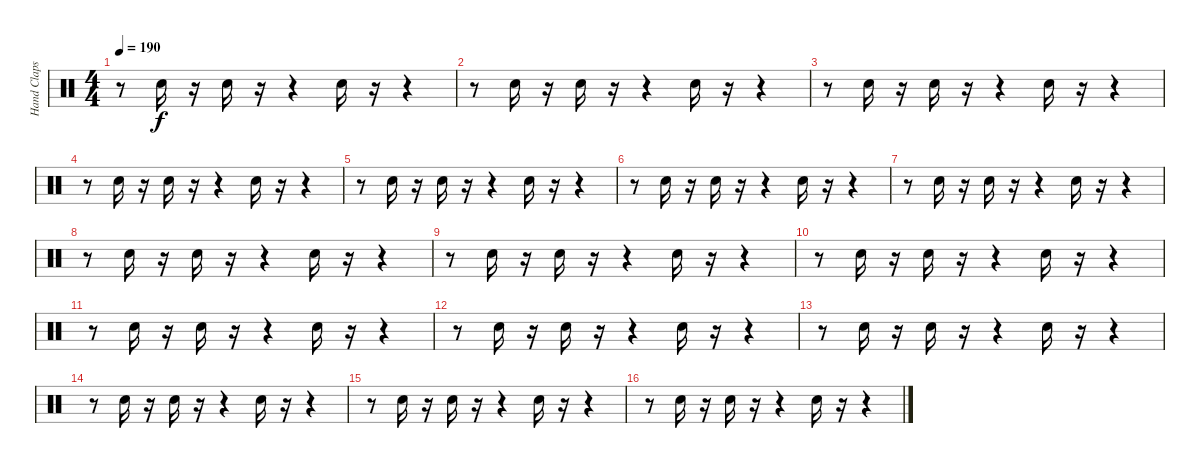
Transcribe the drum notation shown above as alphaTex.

\track ("Hand Claps" "Hand Claps") {instrument percussion}
\staff {score}
\articulation defaults
\ts (4 4)
\tempo 190
\clef neutral
\ks c
r.8{dy f} "Hand Clap (hit)".16 r.16 "Hand Clap (hit)".16 r.16 r.4 "Hand Clap (hit)".16 r.16 r.4 |
r.8 "Hand Clap (hit)".16 r.16 "Hand Clap (hit)".16 r.16 r.4 "Hand Clap (hit)".16 r.16 r.4 |
r.8 "Hand Clap (hit)".16 r.16 "Hand Clap (hit)".16 r.16 r.4 "Hand Clap (hit)".16 r.16 r.4 |
r.8 "Hand Clap (hit)".16 r.16 "Hand Clap (hit)".16 r.16 r.4 "Hand Clap (hit)".16 r.16 r.4 |
r.8 "Hand Clap (hit)".16 r.16 "Hand Clap (hit)".16 r.16 r.4 "Hand Clap (hit)".16 r.16 r.4 |
r.8 "Hand Clap (hit)".16 r.16 "Hand Clap (hit)".16 r.16 r.4 "Hand Clap (hit)".16 r.16 r.4 |
r.8 "Hand Clap (hit)".16 r.16 "Hand Clap (hit)".16 r.16 r.4 "Hand Clap (hit)".16 r.16 r.4 |
r.8 "Hand Clap (hit)".16 r.16 "Hand Clap (hit)".16 r.16 r.4 "Hand Clap (hit)".16 r.16 r.4 |
r.8 "Hand Clap (hit)".16 r.16 "Hand Clap (hit)".16 r.16 r.4 "Hand Clap (hit)".16 r.16 r.4 |
r.8 "Hand Clap (hit)".16 r.16 "Hand Clap (hit)".16 r.16 r.4 "Hand Clap (hit)".16 r.16 r.4 |
r.8 "Hand Clap (hit)".16 r.16 "Hand Clap (hit)".16 r.16 r.4 "Hand Clap (hit)".16 r.16 r.4 |
r.8 "Hand Clap (hit)".16 r.16 "Hand Clap (hit)".16 r.16 r.4 "Hand Clap (hit)".16 r.16 r.4 |
r.8 "Hand Clap (hit)".16 r.16 "Hand Clap (hit)".16 r.16 r.4 "Hand Clap (hit)".16 r.16 r.4 |
r.8 "Hand Clap (hit)".16 r.16 "Hand Clap (hit)".16 r.16 r.4 "Hand Clap (hit)".16 r.16 r.4 |
r.8 "Hand Clap (hit)".16 r.16 "Hand Clap (hit)".16 r.16 r.4 "Hand Clap (hit)".16 r.16 r.4 |
r.8 "Hand Clap (hit)".16 r.16 "Hand Clap (hit)".16 r.16 r.4 "Hand Clap (hit)".16 r.16 r.4
